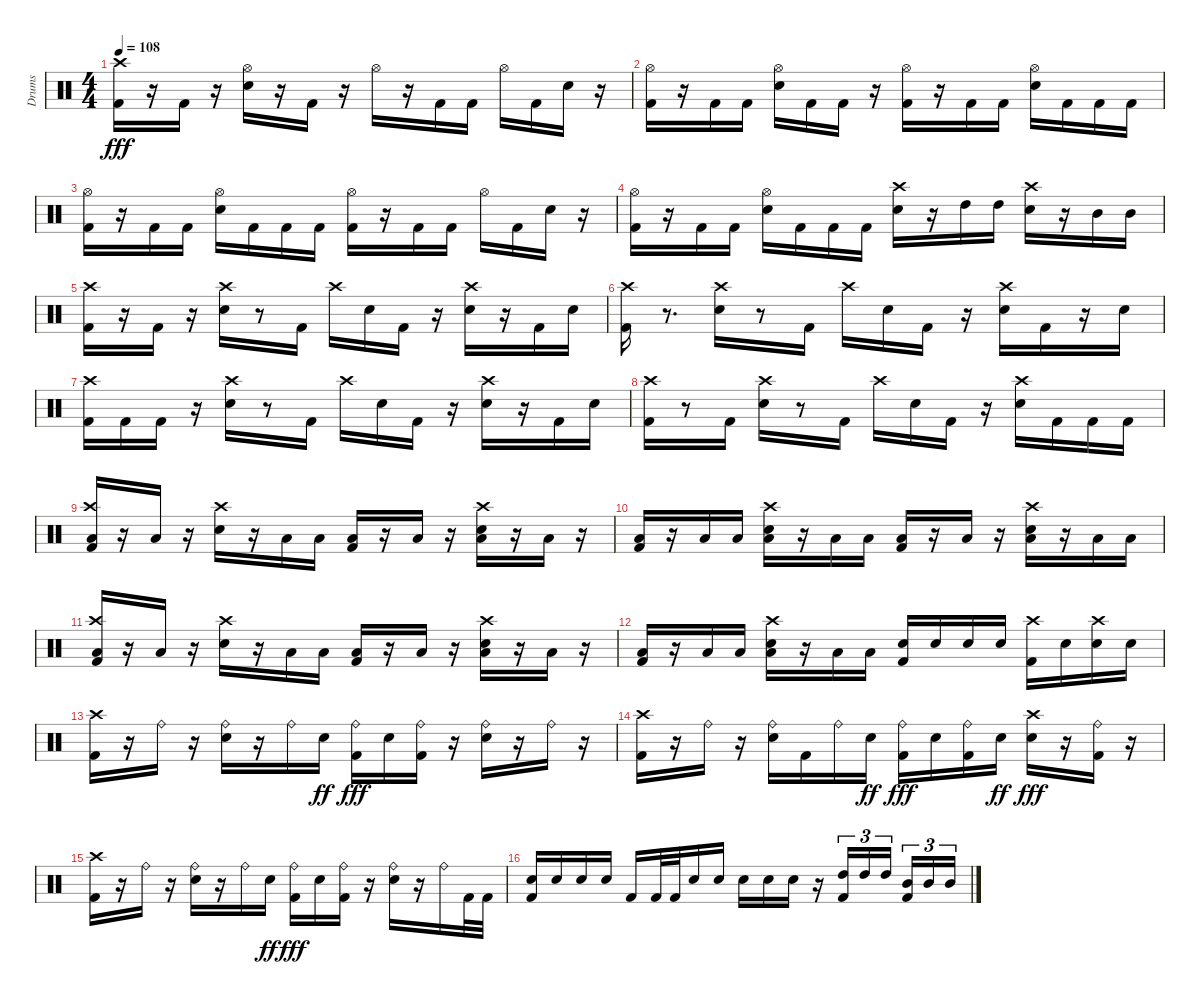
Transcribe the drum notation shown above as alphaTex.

\track ("Drums " "Drums ") {instrument percussion}
\staff {score}
\articulation defaults
\ts (4 4)
\tempo 108
\clef neutral
\ks c
("Kick (hit) 2" "Crash high (hit)").16{dy fff} r.16 "Kick (hit) 2".16 r.16 ("Snare (hit) 2" "Hi-Hat (open)").16 r.16 "Kick (hit) 2".16 r.16 "Hi-Hat (open)".16 r.16 "Kick (hit) 2".16 "Kick (hit) 2".16 "Hi-Hat (open)".16 "Kick (hit) 2".16 "Snare (hit) 2".16 r.16 |
("Kick (hit) 2" "Hi-Hat (open)").16 r.16 "Kick (hit) 2".16 "Kick (hit) 2".16 ("Snare (hit) 2" "Hi-Hat (open)").16 "Kick (hit) 2".16 "Kick (hit) 2".16 r.16 ("Kick (hit) 2" "Hi-Hat (open)").16 r.16 "Kick (hit) 2".16 "Kick (hit) 2".16 ("Snare (hit) 2" "Hi-Hat (open)").16 "Kick (hit) 2".16 "Kick (hit) 2".16 "Kick (hit) 2".16 |
("Kick (hit) 2" "Hi-Hat (open)").16 r.16 "Kick (hit) 2".16 "Kick (hit) 2".16 ("Snare (hit) 2" "Hi-Hat (open)").16 "Kick (hit) 2".16 "Kick (hit) 2".16 "Kick (hit) 2".16 ("Kick (hit) 2" "Hi-Hat (open)").16 r.16 "Kick (hit) 2".16 "Kick (hit) 2".16 "Hi-Hat (open)".16 "Kick (hit) 2".16 "Snare (hit) 2".16 r.16 |
("Kick (hit) 2" "Hi-Hat (open)").16 r.16 "Kick (hit) 2".16 "Kick (hit) 2".16 ("Snare (hit) 2" "Hi-Hat (open)").16 "Kick (hit) 2".16 "Kick (hit) 2".16 "Kick (hit) 2".16 ("Snare (hit) 2" "Crash high (hit)").16 r.16 "High Tom (hit)".16 "High Tom (hit)".16 ("Snare (hit) 2" "Crash high (hit)").16 r.16 "Mid Tom (hit)".16 "Mid Tom (hit)".16 |
("Kick (hit) 2" "Crash high (hit)").16 r.16 "Kick (hit) 2".16 r.16 ("Snare (hit) 2" "Crash high (hit)").16 r.8 "Kick (hit) 2".16 "Crash high (hit)".16 "Snare (hit) 2".16 "Kick (hit) 2".16 r.16 ("Snare (hit) 2" "Crash high (hit)").16 r.16 "Kick (hit) 2".16 "Snare (hit) 2".16 |
("Kick (hit) 2" "Crash high (hit)").16 r.8{d} ("Snare (hit) 2" "Crash high (hit)").16 r.8 "Kick (hit) 2".16 "Crash high (hit)".16 "Snare (hit) 2".16 "Kick (hit) 2".16 r.16 ("Snare (hit) 2" "Crash high (hit)").16 "Kick (hit) 2".16 r.16 "Snare (hit) 2".16 |
("Kick (hit) 2" "Crash high (hit)").16 "Kick (hit) 2".16 "Kick (hit) 2".16 r.16 ("Snare (hit) 2" "Crash high (hit)").16 r.8 "Kick (hit) 2".16 "Crash high (hit)".16 "Snare (hit) 2".16 "Kick (hit) 2".16 r.16 ("Snare (hit) 2" "Crash high (hit)").16 r.16 "Kick (hit) 2".16 "Snare (hit) 2".16 |
("Kick (hit) 2" "Crash high (hit)").16 r.8 "Kick (hit) 2".16 ("Snare (hit) 2" "Crash high (hit)").16 r.8 "Kick (hit) 2".16 "Crash high (hit)".16 "Snare (hit) 2".16 "Kick (hit) 2".16 r.16 ("Snare (hit) 2" "Crash high (hit)").16 "Kick (hit) 2".16 "Kick (hit) 2".16 "Kick (hit) 2".16 |
("Kick (hit) 2" "Low Tom (hit)" "Crash high (hit)").16 r.16 "Low Tom (hit)".16 r.16 ("Snare (hit) 2" "Crash high (hit)").16 r.16 "Low Tom (hit)".16 "Low Tom (hit)".16 ("Kick (hit) 2" "Low Tom (hit)").16 r.16 "Low Tom (hit)".16 r.16 ("Snare (hit) 2" "Low Tom (hit)" "Crash high (hit)").16 r.16 "Low Tom (hit)".16 r.16 |
("Kick (hit) 2" "Low Tom (hit)").16 r.16 "Low Tom (hit)".16 "Low Tom (hit)".16 ("Snare (hit) 2" "Low Tom (hit)" "Crash high (hit)").16 r.16 "Low Tom (hit)".16 "Low Tom (hit)".16 ("Kick (hit) 2" "Low Tom (hit)").16 r.16 "Low Tom (hit)".16 r.16 ("Snare (hit) 2" "Low Tom (hit)" "Crash high (hit)").16 r.16 "Low Tom (hit)".16 "Low Tom (hit)".16 |
("Kick (hit) 2" "Low Tom (hit)" "Crash high (hit)").16 r.16 "Low Tom (hit)".16 r.16 ("Snare (hit) 2" "Crash high (hit)").16 r.16 "Low Tom (hit)".16 "Low Tom (hit)".16 ("Kick (hit) 2" "Low Tom (hit)").16 r.16 "Low Tom (hit)".16 r.16 ("Snare (hit) 2" "Low Tom (hit)" "Crash high (hit)").16 r.16 "Low Tom (hit)".16 r.16 |
("Kick (hit) 2" "Low Tom (hit)").16 r.16 "Low Tom (hit)".16 "Low Tom (hit)".16 ("Snare (hit) 2" "Low Tom (hit)" "Crash high (hit)").16 r.16 "Low Tom (hit)".16 "Low Tom (hit)".16 ("Kick (hit) 2" "Snare (hit) 2").16 "Snare (hit) 2".16 "Snare (hit) 2".16 "Snare (hit) 2".16 ("Kick (hit) 2" "Crash high (hit)").16 "Snare (hit) 2".16 ("Snare (hit) 2" "Crash high (hit)").16 "Snare (hit) 2".16 |
("Kick (hit) 2" "Crash high (hit)").16 r.16 "Ride (bell)".16 r.16 ("Snare (hit) 2" "Ride (bell)").16 r.16 "Ride (bell)".16 "Snare (hit) 2".16{dy ff} ("Kick (hit) 2" "Ride (bell)").16{dy fff} "Snare (hit) 2".16 ("Kick (hit) 2" "Ride (bell)").16 r.16 ("Snare (hit) 2" "Ride (bell)").16 r.16 "Ride (bell)".16 r.16 |
("Kick (hit) 2" "Crash high (hit)").16 r.16 "Ride (bell)".16 r.16 ("Snare (hit) 2" "Ride (bell)").16 "Kick (hit) 2".16 "Ride (bell)".16 "Snare (hit) 2".16{dy ff} ("Kick (hit) 2" "Ride (bell)").16{dy fff} "Snare (hit) 2".16 ("Kick (hit) 2" "Ride (bell)").16 "Snare (hit) 2".16{dy ff} ("Snare (hit) 2" "Crash high (hit)").16{dy fff} r.16 ("Kick (hit) 2" "Ride (bell)").16 r.16 |
("Kick (hit) 2" "Crash high (hit)").16 r.16 "Ride (bell)".16 r.16 ("Snare (hit) 2" "Ride (bell)").16 r.16 "Ride (bell)".16 "Snare (hit) 2".16{dy ff} ("Kick (hit) 2" "Ride (bell)").16{dy fff} "Snare (hit) 2".16 ("Kick (hit) 2" "Ride (bell)").16 r.16 ("Snare (hit) 2" "Ride (bell)").16 r.16 "Ride (bell)".16 "Kick (hit) 2".32 "Kick (hit) 2".32 |
("Kick (hit) 2" "Snare (hit) 2").16 "Snare (hit) 2".16 "Snare (hit) 2".16 "Snare (hit) 2".16 "Kick (hit) 2".16 "Kick (hit) 2".32 "Kick (hit) 2".32 "Snare (hit) 2".16 "Snare (hit) 2".16 "Snare (hit) 2".16 "Snare (hit) 2".16 "Snare (hit) 2".16 r.16 ("Kick (hit) 2" "High Tom (hit)").16{tu (3 2)} "High Tom (hit)".16{tu (3 2)} "High Tom (hit)".16{tu (3 2) beam splitsecondary} ("Kick (hit) 2" "Mid Tom (hit)").16{tu (3 2)} "Mid Tom (hit)".16{tu (3 2)} "Mid Tom (hit)".16{tu (3 2)}
